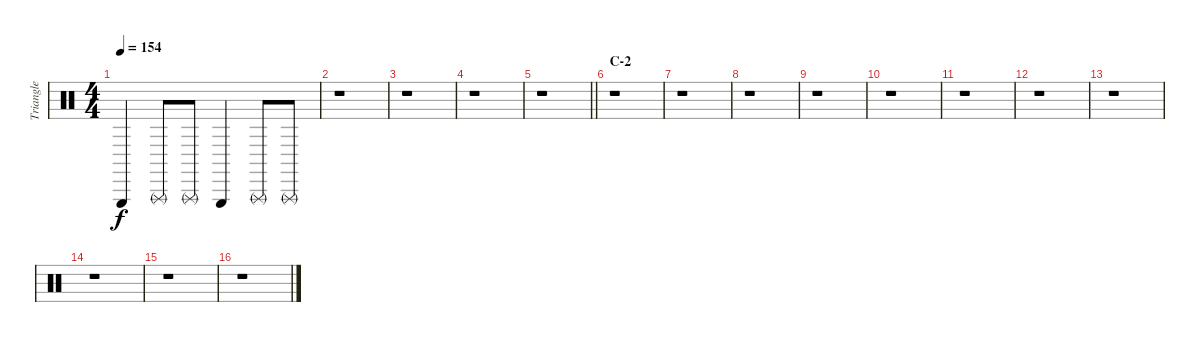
\track ("Triangle" "Triangle") {instrument percussion}
\staff {score}
\articulation defaults
\ts (4 4)
\tempo 154
\clef neutral
\ks c "Triangle (hit)".4{dy f} "Triangle (rnute)".8 "Triangle (rnute)".8 "Triangle (hit)".4 "Triangle (rnute)".8 "Triangle (rnute)".8
|
r.1 |
r.1 |
r.1 |
\barLineRight lightlight
r.1 |
\section ("" "C-2")
r.1 |
r.1 |
r.1 |
r.1 |
r.1 |
r.1 |
r.1 |
r.1 |
r.1 |
r.1 |
r.1
